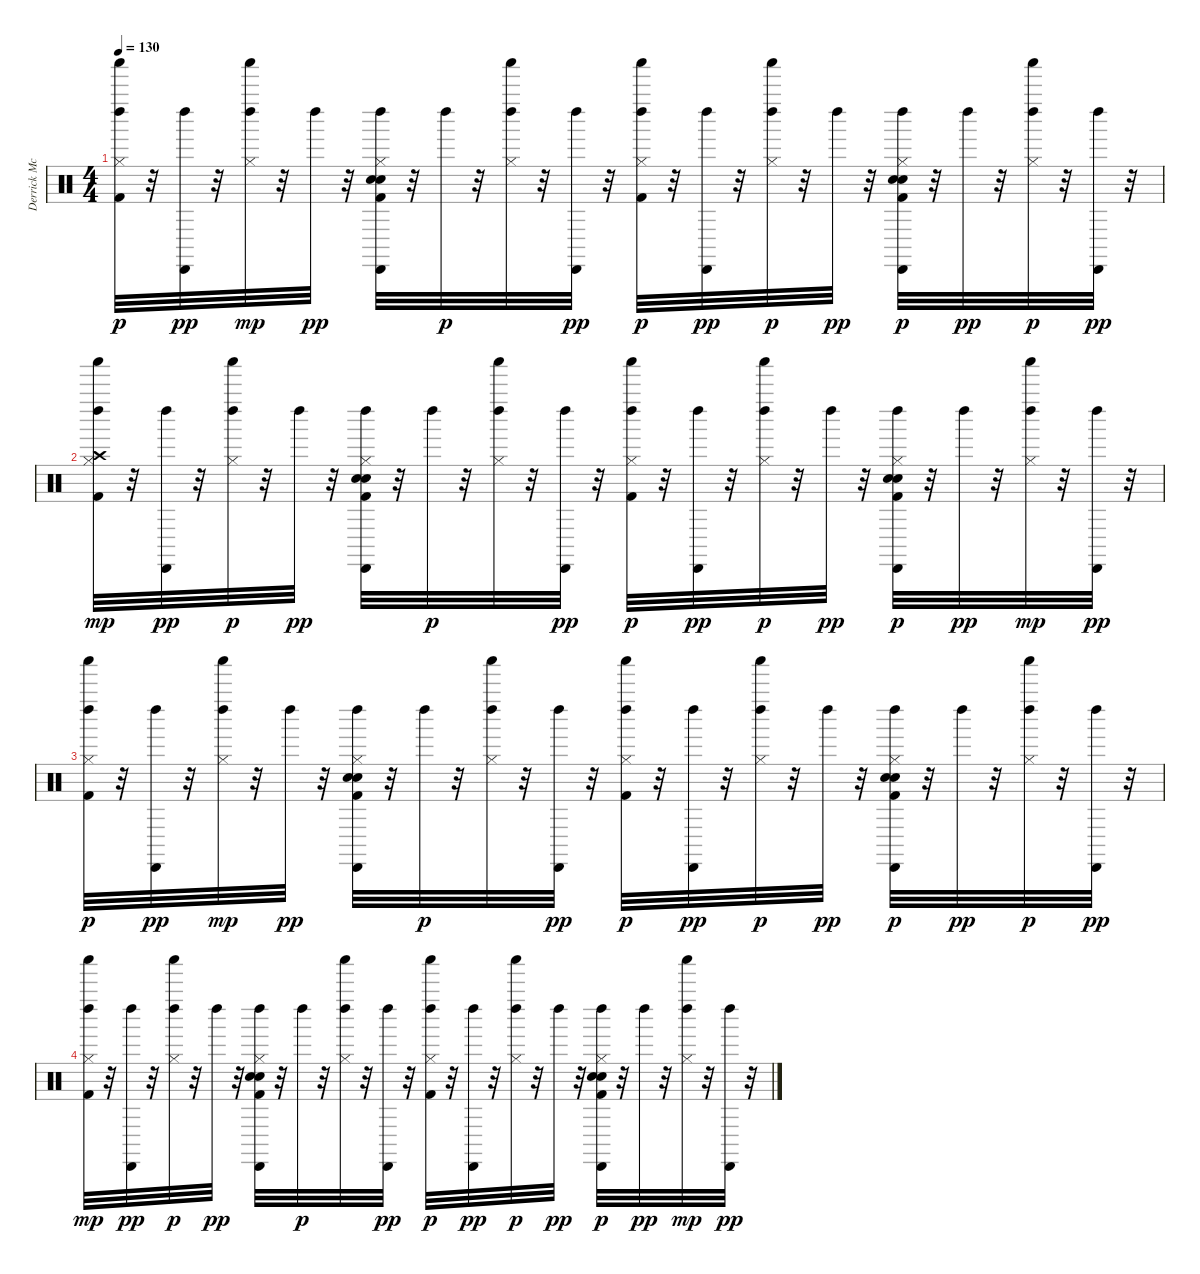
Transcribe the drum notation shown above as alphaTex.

\track ("Derrick McKenzie\\Sola Akingbola - Drums" "Derrick Mc") {instrument percussion}
\staff {score}
\articulation defaults
\ts (4 4)
\tempo 130
\clef neutral
\ks c
("Kick (hit) 2" "Hi-Hat (closed)" "Left Maraca (hit)" "Shaker (hit)").32{dy p} r.32 ("Cabasa (hit)" "Left Maraca (hit)").32{dy pp} r.32 ("Hi-Hat (closed)" "Left Maraca (hit)" "Shaker (hit)").32{dy mp} r.32 "Left Maraca (hit)".32{dy pp} r.32 ("Kick (hit) 2" "Hand Clap (hit)" "Electric Snare (hit)" "Hi-Hat (closed)" "Cabasa (hit)" "Left Maraca (hit)").32 r.32 "Left Maraca (hit)".32{dy p} r.32 ("Hi-Hat (closed)" "Left Maraca (hit)" "Shaker (hit)").32 r.32 ("Cabasa (hit)" "Left Maraca (hit)").32{dy pp} r.32 ("Kick (hit) 2" "Hi-Hat (closed)" "Left Maraca (hit)" "Shaker (hit)").32{dy p} r.32 ("Cabasa (hit)" "Left Maraca (hit)").32{dy pp} r.32 ("Hi-Hat (closed)" "Left Maraca (hit)" "Shaker (hit)").32{dy p} r.32 "Left Maraca (hit)".32{dy pp} r.32 ("Kick (hit) 2" "Hand Clap (hit)" "Electric Snare (hit)" "Hi-Hat (closed)" "Cabasa (hit)" "Left Maraca (hit)").32{dy p} r.32 "Left Maraca (hit)".32{dy pp} r.32 ("Hi-Hat (closed)" "Left Maraca (hit)" "Shaker (hit)").32{dy p} r.32 ("Cabasa (hit)" "Left Maraca (hit)").32{dy pp} r.32 |
("Kick (hit) 2" "Hi-Hat (closed)" "Crash high (hit)" "Left Maraca (hit)" "Shaker (hit)").32{dy mp} r.32 ("Cabasa (hit)" "Left Maraca (hit)").32{dy pp} r.32 ("Hi-Hat (closed)" "Left Maraca (hit)" "Shaker (hit)").32{dy p} r.32 "Left Maraca (hit)".32{dy pp} r.32 ("Kick (hit) 2" "Hand Clap (hit)" "Electric Snare (hit)" "Hi-Hat (closed)" "Cabasa (hit)" "Left Maraca (hit)").32 r.32 "Left Maraca (hit)".32{dy p} r.32 ("Hi-Hat (closed)" "Left Maraca (hit)" "Shaker (hit)").32 r.32 ("Cabasa (hit)" "Left Maraca (hit)").32{dy pp} r.32 ("Kick (hit) 2" "Hi-Hat (closed)" "Left Maraca (hit)" "Shaker (hit)").32{dy p} r.32 ("Cabasa (hit)" "Left Maraca (hit)").32{dy pp} r.32 ("Hi-Hat (closed)" "Left Maraca (hit)" "Shaker (hit)").32{dy p} r.32 "Left Maraca (hit)".32{dy pp} r.32 ("Kick (hit) 2" "Hand Clap (hit)" "Electric Snare (hit)" "Hi-Hat (closed)" "Cabasa (hit)" "Left Maraca (hit)").32{dy p} r.32 "Left Maraca (hit)".32{dy pp} r.32 ("Hi-Hat (closed)" "Left Maraca (hit)" "Shaker (hit)").32{dy mp} r.32 ("Cabasa (hit)" "Left Maraca (hit)").32{dy pp} r.32 |
("Kick (hit) 2" "Hi-Hat (closed)" "Left Maraca (hit)" "Shaker (hit)").32{dy p} r.32 ("Cabasa (hit)" "Left Maraca (hit)").32{dy pp} r.32 ("Hi-Hat (closed)" "Left Maraca (hit)" "Shaker (hit)").32{dy mp} r.32 "Left Maraca (hit)".32{dy pp} r.32 ("Kick (hit) 2" "Hand Clap (hit)" "Electric Snare (hit)" "Hi-Hat (closed)" "Cabasa (hit)" "Left Maraca (hit)").32 r.32 "Left Maraca (hit)".32{dy p} r.32 ("Hi-Hat (closed)" "Left Maraca (hit)" "Shaker (hit)").32 r.32 ("Cabasa (hit)" "Left Maraca (hit)").32{dy pp} r.32 ("Kick (hit) 2" "Hi-Hat (closed)" "Left Maraca (hit)" "Shaker (hit)").32{dy p} r.32 ("Cabasa (hit)" "Left Maraca (hit)").32{dy pp} r.32 ("Hi-Hat (closed)" "Left Maraca (hit)" "Shaker (hit)").32{dy p} r.32 "Left Maraca (hit)".32{dy pp} r.32 ("Kick (hit) 2" "Hand Clap (hit)" "Electric Snare (hit)" "Hi-Hat (closed)" "Cabasa (hit)" "Left Maraca (hit)").32{dy p} r.32 "Left Maraca (hit)".32{dy pp} r.32 ("Hi-Hat (closed)" "Left Maraca (hit)" "Shaker (hit)").32{dy p} r.32 ("Cabasa (hit)" "Left Maraca (hit)").32{dy pp} r.32 |
("Kick (hit) 2" "Hi-Hat (closed)" "Left Maraca (hit)" "Shaker (hit)").32{dy mp} r.32 ("Cabasa (hit)" "Left Maraca (hit)").32{dy pp} r.32 ("Hi-Hat (closed)" "Left Maraca (hit)" "Shaker (hit)").32{dy p} r.32 "Left Maraca (hit)".32{dy pp} r.32 ("Kick (hit) 2" "Hand Clap (hit)" "Electric Snare (hit)" "Hi-Hat (closed)" "Cabasa (hit)" "Left Maraca (hit)").32 r.32 "Left Maraca (hit)".32{dy p} r.32 ("Hi-Hat (closed)" "Left Maraca (hit)" "Shaker (hit)").32 r.32 ("Cabasa (hit)" "Left Maraca (hit)").32{dy pp} r.32 ("Kick (hit) 2" "Hi-Hat (closed)" "Left Maraca (hit)" "Shaker (hit)").32{dy p} r.32 ("Cabasa (hit)" "Left Maraca (hit)").32{dy pp} r.32 ("Hi-Hat (closed)" "Left Maraca (hit)" "Shaker (hit)").32{dy p} r.32 "Left Maraca (hit)".32{dy pp} r.32 ("Kick (hit) 2" "Hand Clap (hit)" "Electric Snare (hit)" "Hi-Hat (closed)" "Cabasa (hit)" "Left Maraca (hit)").32{dy p} r.32 "Left Maraca (hit)".32{dy pp} r.32 ("Hi-Hat (closed)" "Left Maraca (hit)" "Shaker (hit)").32{dy mp} r.32 ("Cabasa (hit)" "Left Maraca (hit)").32{dy pp} r.32
